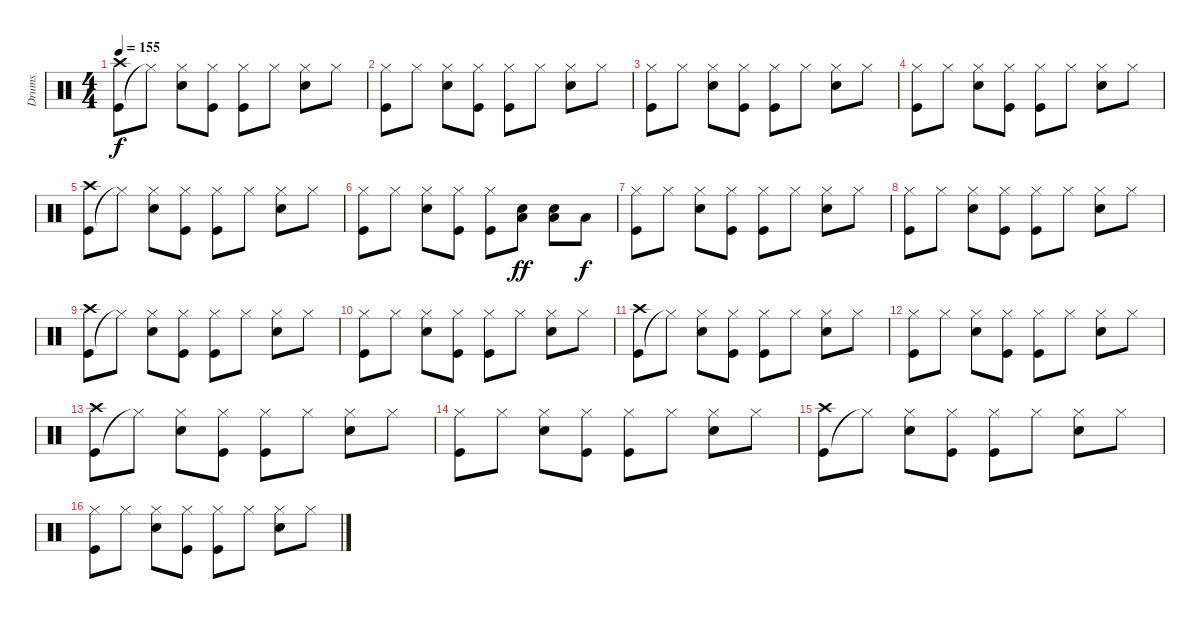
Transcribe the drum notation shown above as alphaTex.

\track ("Drums" "Drums") {instrument percussion}
\staff {score}
\articulation defaults
\ts (4 4)
\tempo 155
\clef neutral
\ks c
("Kick (hit)" "Crash high (hit)").8{dy f} "Hi-Hat (closed)"{t}.8 ("Snare (hit) 2" "Hi-Hat (closed)").8 ("Kick (hit)" "Hi-Hat (closed)").8 ("Kick (hit)" "Hi-Hat (closed)").8 "Hi-Hat (closed)".8 ("Snare (hit) 2" "Hi-Hat (closed)").8 "Hi-Hat (closed)".8 |
("Kick (hit)" "Hi-Hat (closed)").8 "Hi-Hat (closed)".8 ("Snare (hit) 2" "Hi-Hat (closed)").8 ("Kick (hit)" "Hi-Hat (closed)").8 ("Kick (hit)" "Hi-Hat (closed)").8 "Hi-Hat (closed)".8 ("Snare (hit) 2" "Hi-Hat (closed)").8 "Hi-Hat (closed)".8 |
("Kick (hit)" "Hi-Hat (closed)").8 "Hi-Hat (closed)".8 ("Snare (hit) 2" "Hi-Hat (closed)").8 ("Kick (hit)" "Hi-Hat (closed)").8 ("Kick (hit)" "Hi-Hat (closed)").8 "Hi-Hat (closed)".8 ("Snare (hit) 2" "Hi-Hat (closed)").8 "Hi-Hat (closed)".8 |
("Kick (hit)" "Hi-Hat (closed)").8 "Hi-Hat (closed)".8 ("Snare (hit) 2" "Hi-Hat (closed)").8 ("Kick (hit)" "Hi-Hat (closed)").8 ("Kick (hit)" "Hi-Hat (closed)").8 "Hi-Hat (closed)".8 ("Snare (hit) 2" "Hi-Hat (closed)").8 "Hi-Hat (closed)".8 |
("Kick (hit)" "Crash high (hit)").8 "Hi-Hat (closed)"{t}.8 ("Snare (hit) 2" "Hi-Hat (closed)").8 ("Kick (hit)" "Hi-Hat (closed)").8 ("Kick (hit)" "Hi-Hat (closed)").8 "Hi-Hat (closed)".8 ("Snare (hit) 2" "Hi-Hat (closed)").8 "Hi-Hat (closed)".8 |
("Kick (hit)" "Hi-Hat (closed)").8 "Hi-Hat (closed)".8 ("Snare (hit) 2" "Hi-Hat (closed)").8 ("Kick (hit)" "Hi-Hat (closed)").8 ("Kick (hit)" "Hi-Hat (closed)").8 ("Snare (hit) 2" "Low Floor Tom (hit)").8{dy ff} ("Snare (hit) 2" "Low Floor Tom (hit)").8 "Low Floor Tom (hit)".8{dy f} |
("Kick (hit)" "Hi-Hat (closed)").8 "Hi-Hat (closed)".8 ("Snare (hit) 2" "Hi-Hat (closed)").8 ("Kick (hit)" "Hi-Hat (closed)").8 ("Kick (hit)" "Hi-Hat (closed)").8 "Hi-Hat (closed)".8 ("Snare (hit) 2" "Hi-Hat (closed)").8 "Hi-Hat (closed)".8 |
("Kick (hit)" "Hi-Hat (closed)").8 "Hi-Hat (closed)".8 ("Snare (hit) 2" "Hi-Hat (closed)").8 ("Kick (hit)" "Hi-Hat (closed)").8 ("Kick (hit)" "Hi-Hat (closed)").8 "Hi-Hat (closed)".8 ("Snare (hit) 2" "Hi-Hat (closed)").8 "Hi-Hat (closed)".8 |
("Kick (hit)" "Crash high (hit)").8 "Hi-Hat (closed)"{t}.8 ("Snare (hit) 2" "Hi-Hat (closed)").8 ("Kick (hit)" "Hi-Hat (closed)").8 ("Kick (hit)" "Hi-Hat (closed)").8 "Hi-Hat (closed)".8 ("Snare (hit) 2" "Hi-Hat (closed)").8 "Hi-Hat (closed)".8 |
("Kick (hit)" "Hi-Hat (closed)").8 "Hi-Hat (closed)".8 ("Snare (hit) 2" "Hi-Hat (closed)").8 ("Kick (hit)" "Hi-Hat (closed)").8 ("Kick (hit)" "Hi-Hat (closed)").8 "Hi-Hat (closed)".8 ("Snare (hit) 2" "Hi-Hat (closed)").8 "Hi-Hat (closed)".8 |
("Kick (hit)" "Crash high (hit)").8 "Hi-Hat (closed)"{t}.8 ("Snare (hit) 2" "Hi-Hat (closed)").8 ("Kick (hit)" "Hi-Hat (closed)").8 ("Kick (hit)" "Hi-Hat (closed)").8 "Hi-Hat (closed)".8 ("Snare (hit) 2" "Hi-Hat (closed)").8 "Hi-Hat (closed)".8 |
("Kick (hit)" "Hi-Hat (closed)").8 "Hi-Hat (closed)".8 ("Snare (hit) 2" "Hi-Hat (closed)").8 ("Kick (hit)" "Hi-Hat (closed)").8 ("Kick (hit)" "Hi-Hat (closed)").8 "Hi-Hat (closed)".8 ("Snare (hit) 2" "Hi-Hat (closed)").8 "Hi-Hat (closed)".8 |
("Kick (hit)" "Crash high (hit)").8 "Hi-Hat (closed)"{t}.8 ("Snare (hit) 2" "Hi-Hat (closed)").8 ("Kick (hit)" "Hi-Hat (closed)").8 ("Kick (hit)" "Hi-Hat (closed)").8 "Hi-Hat (closed)".8 ("Snare (hit) 2" "Hi-Hat (closed)").8 "Hi-Hat (closed)".8 |
("Kick (hit)" "Hi-Hat (closed)").8 "Hi-Hat (closed)".8 ("Snare (hit) 2" "Hi-Hat (closed)").8 ("Kick (hit)" "Hi-Hat (closed)").8 ("Kick (hit)" "Hi-Hat (closed)").8 "Hi-Hat (closed)".8 ("Snare (hit) 2" "Hi-Hat (closed)").8 "Hi-Hat (closed)".8 |
("Kick (hit)" "Crash high (hit)").8 "Hi-Hat (closed)"{t}.8 ("Snare (hit) 2" "Hi-Hat (closed)").8 ("Kick (hit)" "Hi-Hat (closed)").8 ("Kick (hit)" "Hi-Hat (closed)").8 "Hi-Hat (closed)".8 ("Snare (hit) 2" "Hi-Hat (closed)").8 "Hi-Hat (closed)".8 |
("Kick (hit)" "Hi-Hat (closed)").8 "Hi-Hat (closed)".8 ("Snare (hit) 2" "Hi-Hat (closed)").8 ("Kick (hit)" "Hi-Hat (closed)").8 ("Kick (hit)" "Hi-Hat (closed)").8 "Hi-Hat (closed)".8 ("Snare (hit) 2" "Hi-Hat (closed)").8 "Hi-Hat (closed)".8
